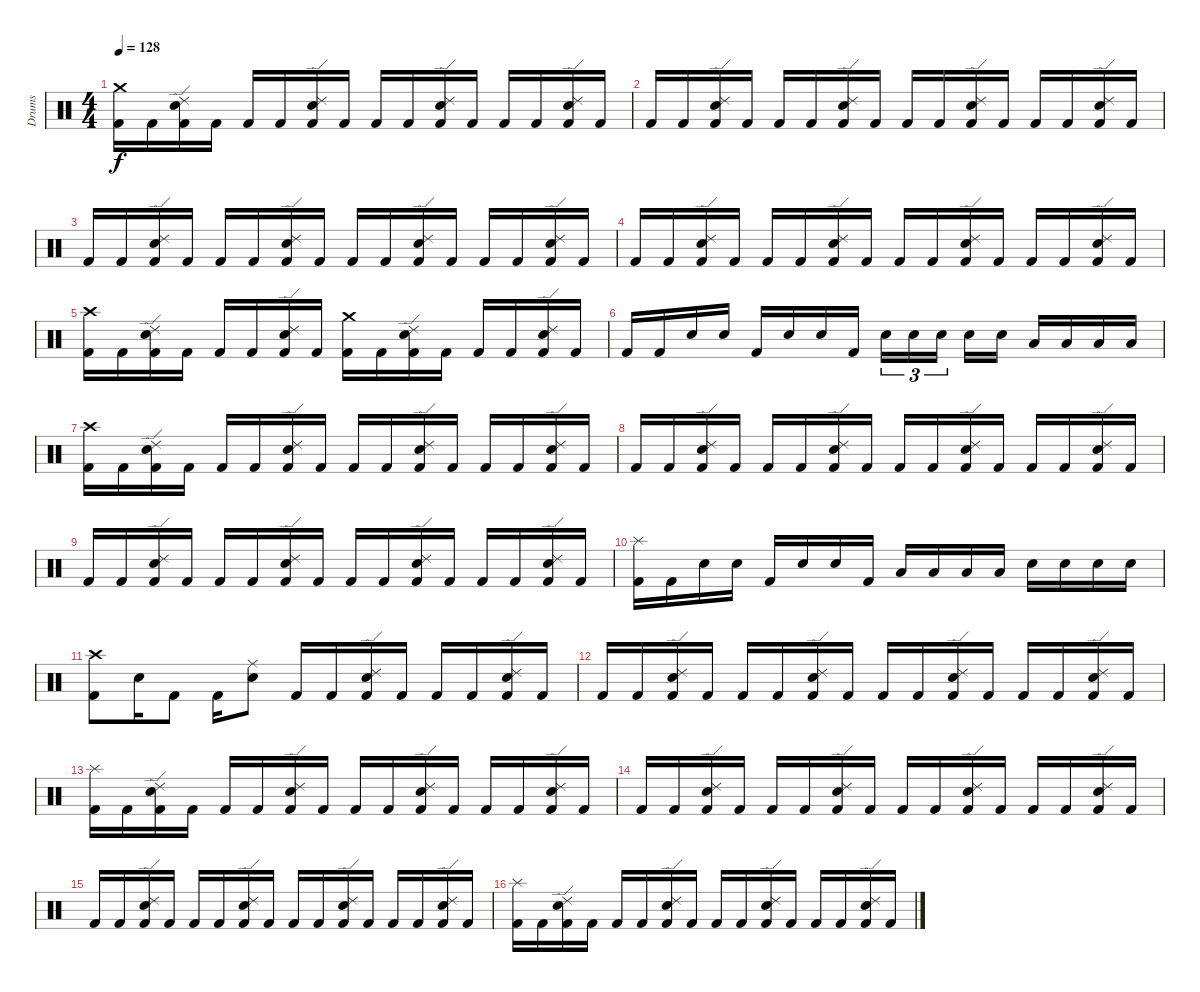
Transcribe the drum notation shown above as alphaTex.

\track ("Drums" "Drums") {instrument percussion}
\staff {score}
\articulation defaults
\ts (4 4)
\tempo 128
\clef neutral
\ks c
("Crash medium (hit)" "Kick (hit) 2").16{dy f} "Kick (hit) 2".16 ("Ride (edge) 2" "Snare (hit) 2" "Kick (hit) 2").16 "Kick (hit) 2".16 "Kick (hit) 2".16 "Kick (hit) 2".16 ("Ride (edge) 2" "Snare (hit) 2" "Kick (hit) 2").16 "Kick (hit) 2".16 "Kick (hit) 2".16 "Kick (hit) 2".16 ("Ride (edge) 2" "Snare (hit) 2" "Kick (hit) 2").16 "Kick (hit) 2".16 "Kick (hit) 2".16 "Kick (hit) 2".16 ("Ride (edge) 2" "Snare (hit) 2" "Kick (hit) 2").16 "Kick (hit) 2".16 |
"Kick (hit) 2".16 "Kick (hit) 2".16 ("Ride (edge) 2" "Snare (hit) 2" "Kick (hit) 2").16 "Kick (hit) 2".16 "Kick (hit) 2".16 "Kick (hit) 2".16 ("Ride (edge) 2" "Snare (hit) 2" "Kick (hit) 2").16 "Kick (hit) 2".16 "Kick (hit) 2".16 "Kick (hit) 2".16 ("Ride (edge) 2" "Snare (hit) 2" "Kick (hit) 2").16 "Kick (hit) 2".16 "Kick (hit) 2".16 "Kick (hit) 2".16 ("Ride (edge) 2" "Snare (hit) 2" "Kick (hit) 2").16 "Kick (hit) 2".16 |
"Kick (hit) 2".16 "Kick (hit) 2".16 ("Ride (edge) 2" "Snare (hit) 2" "Kick (hit) 2").16 "Kick (hit) 2".16 "Kick (hit) 2".16 "Kick (hit) 2".16 ("Ride (edge) 2" "Snare (hit) 2" "Kick (hit) 2").16 "Kick (hit) 2".16 "Kick (hit) 2".16 "Kick (hit) 2".16 ("Ride (edge) 2" "Snare (hit) 2" "Kick (hit) 2").16 "Kick (hit) 2".16 "Kick (hit) 2".16 "Kick (hit) 2".16 ("Ride (edge) 2" "Snare (hit) 2" "Kick (hit) 2").16 "Kick (hit) 2".16 |
"Kick (hit) 2".16 "Kick (hit) 2".16 ("Ride (edge) 2" "Snare (hit) 2" "Kick (hit) 2").16 "Kick (hit) 2".16 "Kick (hit) 2".16 "Kick (hit) 2".16 ("Ride (edge) 2" "Snare (hit) 2" "Kick (hit) 2").16 "Kick (hit) 2".16 "Kick (hit) 2".16 "Kick (hit) 2".16 ("Ride (edge) 2" "Snare (hit) 2" "Kick (hit) 2").16 "Kick (hit) 2".16 "Kick (hit) 2".16 "Kick (hit) 2".16 ("Ride (edge) 2" "Snare (hit) 2" "Kick (hit) 2").16 "Kick (hit) 2".16 |
("Crash high (hit)" "Kick (hit) 2").16 "Kick (hit) 2".16 ("Ride (edge) 2" "Snare (hit) 2" "Kick (hit) 2").16 "Kick (hit) 2".16 "Kick (hit) 2".16 "Kick (hit) 2".16 ("Ride (edge) 2" "Snare (hit) 2" "Kick (hit) 2").16 "Kick (hit) 2".16 ("Crash medium (hit)" "Kick (hit) 2").16 "Kick (hit) 2".16 ("Ride (edge) 2" "Snare (hit) 2" "Kick (hit) 2").16 "Kick (hit) 2".16 "Kick (hit) 2".16 "Kick (hit) 2".16 ("Ride (edge) 2" "Snare (hit) 2" "Kick (hit) 2").16 "Kick (hit) 2".16 |
"Kick (hit) 2".16 "Kick (hit) 2".16 "Snare (hit) 2".16 "Snare (hit) 2".16 "Kick (hit) 2".16 "Snare (hit) 2".16 "Snare (hit) 2".16 "Kick (hit) 2".16 "Snare (hit) 2".16{tu (3 2)} "Snare (hit) 2".16{tu (3 2)} "Snare (hit) 2".16{tu (3 2) beam splitsecondary} "Snare (hit) 2".16 "Snare (hit) 2".16 "Low Tom (hit)".16 "Low Tom (hit)".16 "Low Tom (hit)".16 "Low Tom (hit)".16 |
("Crash high (hit)" "Kick (hit) 2").16 "Kick (hit) 2".16 ("Ride (edge) 2" "Snare (hit) 2" "Kick (hit) 2").16 "Kick (hit) 2".16 "Kick (hit) 2".16 "Kick (hit) 2".16 ("Ride (edge) 2" "Snare (hit) 2" "Kick (hit) 2").16 "Kick (hit) 2".16 "Kick (hit) 2".16 "Kick (hit) 2".16 ("Ride (edge) 2" "Snare (hit) 2" "Kick (hit) 2").16 "Kick (hit) 2".16 "Kick (hit) 2".16 "Kick (hit) 2".16 ("Ride (edge) 2" "Snare (hit) 2" "Kick (hit) 2").16 "Kick (hit) 2".16 |
"Kick (hit) 2".16 "Kick (hit) 2".16 ("Ride (edge) 2" "Snare (hit) 2" "Kick (hit) 2").16 "Kick (hit) 2".16 "Kick (hit) 2".16 "Kick (hit) 2".16 ("Ride (edge) 2" "Snare (hit) 2" "Kick (hit) 2").16 "Kick (hit) 2".16 "Kick (hit) 2".16 "Kick (hit) 2".16 ("Ride (edge) 2" "Snare (hit) 2" "Kick (hit) 2").16 "Kick (hit) 2".16 "Kick (hit) 2".16 "Kick (hit) 2".16 ("Ride (edge) 2" "Snare (hit) 2" "Kick (hit) 2").16 "Kick (hit) 2".16 |
"Kick (hit) 2".16 "Kick (hit) 2".16 ("Ride (edge) 2" "Snare (hit) 2" "Kick (hit) 2").16 "Kick (hit) 2".16 "Kick (hit) 2".16 "Kick (hit) 2".16 ("Ride (edge) 2" "Snare (hit) 2" "Kick (hit) 2").16 "Kick (hit) 2".16 "Kick (hit) 2".16 "Kick (hit) 2".16 ("Ride (edge) 2" "Snare (hit) 2" "Kick (hit) 2").16 "Kick (hit) 2".16 "Kick (hit) 2".16 "Kick (hit) 2".16 ("Ride (edge) 2" "Snare (hit) 2" "Kick (hit) 2").16 "Kick (hit) 2".16 |
("Splash (hit)" "Kick (hit) 2").16 "Kick (hit) 2".16 "Snare (hit) 2".16 "Snare (hit) 2".16 "Kick (hit) 2".16 "Snare (hit) 2".16 "Snare (hit) 2".16 "Kick (hit) 2".16 "Low Tom (hit)".16 "Low Tom (hit)".16 "Low Tom (hit)".16 "Low Tom (hit)".16 "Snare (hit) 2".16 "Snare (hit) 2".16 "Snare (hit) 2".16 "Snare (hit) 2".16 |
("Crash high (hit)" "Kick (hit) 2").8 "Snare (hit) 2".16 "Kick (hit) 2".8 "Kick (hit) 2".16 ("Ride (middle)" "Snare (hit) 2").8 "Kick (hit) 2".16 "Kick (hit) 2".16 ("Ride (edge) 2" "Snare (hit) 2" "Kick (hit) 2").16 "Kick (hit) 2".16 "Kick (hit) 2".16 "Kick (hit) 2".16 ("Ride (edge) 2" "Snare (hit) 2" "Kick (hit) 2").16 "Kick (hit) 2".16 |
"Kick (hit) 2".16 "Kick (hit) 2".16 ("Ride (edge) 2" "Snare (hit) 2" "Kick (hit) 2").16 "Kick (hit) 2".16 "Kick (hit) 2".16 "Kick (hit) 2".16 ("Ride (edge) 2" "Snare (hit) 2" "Kick (hit) 2").16 "Kick (hit) 2".16 "Kick (hit) 2".16 "Kick (hit) 2".16 ("Ride (edge) 2" "Snare (hit) 2" "Kick (hit) 2").16 "Kick (hit) 2".16 "Kick (hit) 2".16 "Kick (hit) 2".16 ("Ride (edge) 2" "Snare (hit) 2" "Kick (hit) 2").16 "Kick (hit) 2".16 |
("Splash (hit)" "Kick (hit) 2").16 "Kick (hit) 2".16 ("Ride (edge) 2" "Snare (hit) 2" "Kick (hit) 2").16 "Kick (hit) 2".16 "Kick (hit) 2".16 "Kick (hit) 2".16 ("Ride (edge) 2" "Snare (hit) 2" "Kick (hit) 2").16 "Kick (hit) 2".16 "Kick (hit) 2".16 "Kick (hit) 2".16 ("Ride (edge) 2" "Snare (hit) 2" "Kick (hit) 2").16 "Kick (hit) 2".16 "Kick (hit) 2".16 "Kick (hit) 2".16 ("Ride (edge) 2" "Snare (hit) 2" "Kick (hit) 2").16 "Kick (hit) 2".16 |
"Kick (hit) 2".16 "Kick (hit) 2".16 ("Ride (edge) 2" "Snare (hit) 2" "Kick (hit) 2").16 "Kick (hit) 2".16 "Kick (hit) 2".16 "Kick (hit) 2".16 ("Ride (edge) 2" "Snare (hit) 2" "Kick (hit) 2").16 "Kick (hit) 2".16 "Kick (hit) 2".16 "Kick (hit) 2".16 ("Ride (edge) 2" "Snare (hit) 2" "Kick (hit) 2").16 "Kick (hit) 2".16 "Kick (hit) 2".16 "Kick (hit) 2".16 ("Ride (edge) 2" "Snare (hit) 2" "Kick (hit) 2").16 "Kick (hit) 2".16 |
"Kick (hit) 2".16 "Kick (hit) 2".16 ("Ride (edge) 2" "Snare (hit) 2" "Kick (hit) 2").16 "Kick (hit) 2".16 "Kick (hit) 2".16 "Kick (hit) 2".16 ("Ride (edge) 2" "Snare (hit) 2" "Kick (hit) 2").16 "Kick (hit) 2".16 "Kick (hit) 2".16 "Kick (hit) 2".16 ("Ride (edge) 2" "Snare (hit) 2" "Kick (hit) 2").16 "Kick (hit) 2".16 "Kick (hit) 2".16 "Kick (hit) 2".16 ("Ride (edge) 2" "Snare (hit) 2" "Kick (hit) 2").16 "Kick (hit) 2".16 |
("Splash (hit)" "Kick (hit) 2").16 "Kick (hit) 2".16 ("Ride (edge) 2" "Snare (hit) 2" "Kick (hit) 2").16 "Kick (hit) 2".16 "Kick (hit) 2".16 "Kick (hit) 2".16 ("Ride (edge) 2" "Snare (hit) 2" "Kick (hit) 2").16 "Kick (hit) 2".16 "Kick (hit) 2".16 "Kick (hit) 2".16 ("Ride (edge) 2" "Snare (hit) 2" "Kick (hit) 2").16 "Kick (hit) 2".16 "Kick (hit) 2".16 "Kick (hit) 2".16 ("Ride (edge) 2" "Snare (hit) 2" "Kick (hit) 2").16 "Kick (hit) 2".16
